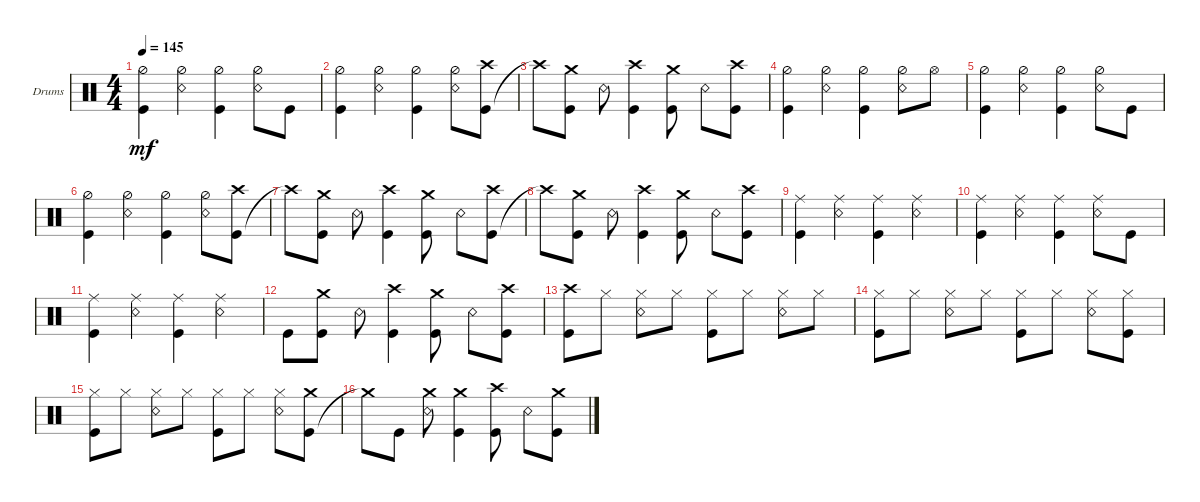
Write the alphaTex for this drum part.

\defaultSystemsLayout 4
\bracketExtendMode groupsimilarinstruments
\firstSystemTrackNameOrientation horizontal
\otherSystemsTrackNameOrientation horizontal
\track ("Drumkit" "Drums") {instrument percussion}
\staff {score}
\articulation defaults
\ts (4 4)
\tempo 145
\clef neutral
\ks c
("Kick (hit)" "Hi-Hat (half)").4{dy mf} ("Hi-Hat (half)" "Snare (rim shot)").4 ("Kick (hit)" "Hi-Hat (half)").4 ("Hi-Hat (half)" "Snare (rim shot)").8 "Kick (hit)".8 |
("Kick (hit)" "Hi-Hat (half)").4 ("Hi-Hat (half)" "Snare (rim shot)").4 ("Kick (hit)" "Hi-Hat (half)").4 ("Hi-Hat (half)" "Snare (rim shot)").8 ("Kick (hit)" "Crash high (hit)").8 |
"Crash high (hit)"{t}.8 ("Crash medium (hit)" "Kick (hit)").8 "Snare (rim shot)".8 ("Kick (hit)" "Crash high (hit)").4 ("Crash medium (hit)" "Kick (hit)").8 "Snare (rim shot)".8 ("Kick (hit)" "Crash high (hit)").8 |
("Kick (hit)" "Hi-Hat (half)").4 ("Hi-Hat (half)" "Snare (rim shot)").4 ("Kick (hit)" "Hi-Hat (half)").4 ("Hi-Hat (half)" "Snare (rim shot)").8 "Hi-Hat (open)".8 |
("Kick (hit)" "Hi-Hat (half)").4 ("Hi-Hat (half)" "Snare (rim shot)").4 ("Kick (hit)" "Hi-Hat (half)").4 ("Hi-Hat (half)" "Snare (rim shot)").8 "Kick (hit)".8 |
("Kick (hit)" "Hi-Hat (half)").4 ("Hi-Hat (half)" "Snare (rim shot)").4 ("Kick (hit)" "Hi-Hat (half)").4 ("Hi-Hat (half)" "Snare (rim shot)").8 ("Kick (hit)" "Crash high (hit)").8 |
"Crash high (hit)"{t}.8 ("Crash medium (hit)" "Kick (hit)").8 "Snare (rim shot)".8 ("Kick (hit)" "Crash high (hit)").4 ("Crash medium (hit)" "Kick (hit)").8 "Snare (rim shot)".8 ("Kick (hit)" "Crash high (hit)").8 |
"Crash high (hit)"{t}.8 ("Crash medium (hit)" "Kick (hit)").8 "Snare (rim shot)".8 ("Kick (hit)" "Crash high (hit)").4 ("Crash medium (hit)" "Kick (hit)").8 "Snare (rim shot)".8 ("Kick (hit)" "Crash high (hit)").8 |
("Kick (hit)" "Ride (middle)").4 ("Ride (middle)" "Snare (rim shot)").4 ("Ride (middle)" "Kick (hit)").4 ("Ride (middle)" "Snare (rim shot)").4 |
("Kick (hit)" "Ride (middle)").4 ("Ride (middle)" "Snare (rim shot)").4 ("Ride (middle)" "Kick (hit)").4 ("Ride (middle)" "Snare (rim shot)").8 "Kick (hit)".8 |
("Kick (hit)" "Ride (middle)").4 ("Ride (middle)" "Snare (rim shot)").4 ("Ride (middle)" "Kick (hit)").4 ("Ride (middle)" "Snare (rim shot)").4 |
"Kick (hit)".8 ("Crash medium (hit)" "Kick (hit)").8 "Snare (rim shot)".8 ("Kick (hit)" "Crash high (hit)").4 ("Crash medium (hit)" "Kick (hit)").8 "Snare (rim shot)".8 ("Kick (hit)" "Crash high (hit)").8 |
("Kick (hit)" "Crash high (hit)").8 "Hi-Hat (closed)".8 ("Snare (rim shot)" "Hi-Hat (closed)").8 "Hi-Hat (closed)".8 ("Hi-Hat (closed)" "Kick (hit)").8 "Hi-Hat (closed)".8 ("Snare (rim shot)" "Hi-Hat (closed)").8 "Hi-Hat (closed)".8 |
("Kick (hit)" "Hi-Hat (closed)").8 "Hi-Hat (closed)".8 ("Snare (rim shot)" "Hi-Hat (closed)").8 "Hi-Hat (closed)".8 ("Hi-Hat (closed)" "Kick (hit)").8 "Hi-Hat (closed)".8 ("Snare (rim shot)" "Hi-Hat (closed)").8 ("Kick (hit)" "Hi-Hat (closed)").8 |
("Kick (hit)" "Hi-Hat (closed)").8 "Hi-Hat (closed)".8 ("Snare (rim shot)" "Hi-Hat (closed)").8 "Hi-Hat (closed)".8 ("Hi-Hat (closed)" "Kick (hit)").8 "Hi-Hat (closed)".8 ("Snare (rim shot)" "Hi-Hat (closed)").8 ("Kick (hit)" "Crash medium (hit)").8 |
"Crash medium (hit)"{t}.8 "Kick (hit)".8 ("Crash medium (hit)" "Snare (rim shot)").8 ("Kick (hit)" "Crash medium (hit)").4 ("Kick (hit)" "Crash high (hit)").8 "Snare (rim shot)".8 ("Kick (hit)" "Crash medium (hit)").8
